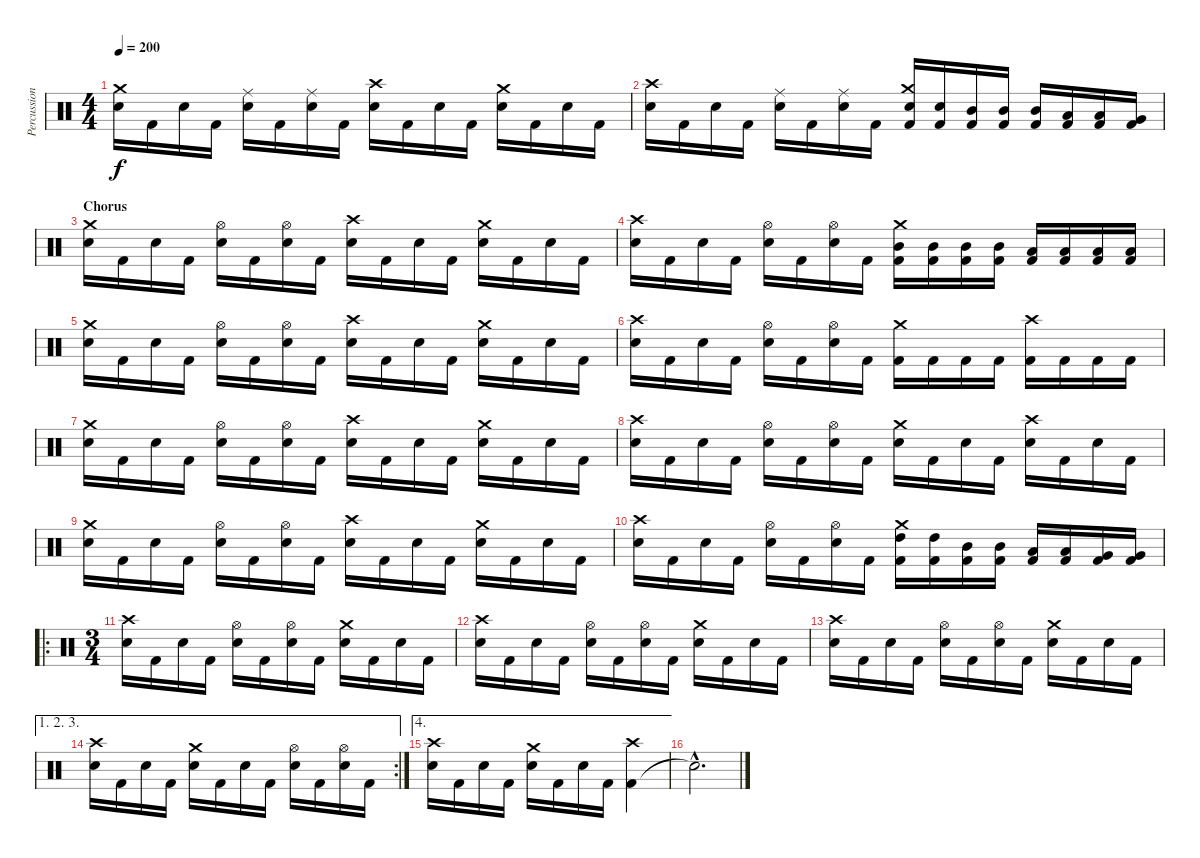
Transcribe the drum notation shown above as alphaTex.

\track ("Percussion" "Percussion") {instrument percussion}
\staff {score}
\articulation defaults
\ts (4 4)
\tempo 200
\clef neutral
\ks c
("Snare (hit) 2" "Crash medium (hit)").16{dy f} "Kick (hit) 2".16 "Snare (hit) 2".16 "Kick (hit) 2".16 ("Snare (hit) 2" "Ride (middle)").16 "Kick (hit) 2".16 ("Snare (hit) 2" "Ride (middle)").16 "Kick (hit) 2".16 ("Snare (hit) 2" "Crash high (hit)").16 "Kick (hit) 2".16 "Snare (hit) 2".16 "Kick (hit) 2".16 ("Snare (hit) 2" "Crash medium (hit)").16 "Kick (hit) 2".16 "Snare (hit) 2".16 "Kick (hit) 2".16 |
("Snare (hit) 2" "Crash high (hit)").16 "Kick (hit) 2".16 "Snare (hit) 2".16 "Kick (hit) 2".16 ("Snare (hit) 2" "Ride (middle)").16 "Kick (hit) 2".16 ("Snare (hit) 2" "Ride (middle)").16 "Kick (hit) 2".16 ("Kick (hit) 2" "Snare (hit) 2" "Crash medium (hit)").16 ("Kick (hit) 2" "Snare (hit) 2").16 ("Kick (hit) 2" "Mid Tom (hit)").16 ("Kick (hit) 2" "Mid Tom (hit)").16 ("Kick (hit) 2" "Mid Tom (hit)").16 ("Kick (hit) 2" "Low Tom (hit)").16 ("Kick (hit) 2" "Low Tom (hit)").16 ("Kick (hit) 2" "Very Low Tom (hit)").16 |
\section ("" "Chorus")
("Snare (hit) 2" "Crash medium (hit)").16 "Kick (hit) 2".16 "Snare (hit) 2".16 "Kick (hit) 2".16 ("Snare (hit) 2" "Hi-Hat (open)").16 "Kick (hit) 2".16 ("Snare (hit) 2" "Hi-Hat (open)").16 "Kick (hit) 2".16 ("Snare (hit) 2" "Crash high (hit)").16 "Kick (hit) 2".16 "Snare (hit) 2".16 "Kick (hit) 2".16 ("Snare (hit) 2" "Crash medium (hit)").16 "Kick (hit) 2".16 "Snare (hit) 2".16 "Kick (hit) 2".16 |
("Snare (hit) 2" "Crash high (hit)").16 "Kick (hit) 2".16 "Snare (hit) 2".16 "Kick (hit) 2".16 ("Snare (hit) 2" "Hi-Hat (open)").16 "Kick (hit) 2".16 ("Snare (hit) 2" "Hi-Hat (open)").16 "Kick (hit) 2".16 ("Kick (hit) 2" "Mid Tom (hit)" "Crash medium (hit)").16 ("Kick (hit) 2" "Mid Tom (hit)").16 ("Kick (hit) 2" "Mid Tom (hit)").16 ("Kick (hit) 2" "Mid Tom (hit)").16 ("Kick (hit) 2" "Low Tom (hit)").16 ("Kick (hit) 2" "Low Tom (hit)").16 ("Kick (hit) 2" "Low Tom (hit)").16 ("Kick (hit) 2" "Low Tom (hit)").16 |
("Snare (hit) 2" "Crash medium (hit)").16 "Kick (hit) 2".16 "Snare (hit) 2".16 "Kick (hit) 2".16 ("Snare (hit) 2" "Hi-Hat (open)").16 "Kick (hit) 2".16 ("Snare (hit) 2" "Hi-Hat (open)").16 "Kick (hit) 2".16 ("Snare (hit) 2" "Crash high (hit)").16 "Kick (hit) 2".16 "Snare (hit) 2".16 "Kick (hit) 2".16 ("Snare (hit) 2" "Crash medium (hit)").16 "Kick (hit) 2".16 "Snare (hit) 2".16 "Kick (hit) 2".16 |
("Snare (hit) 2" "Crash high (hit)").16 "Kick (hit) 2".16 "Snare (hit) 2".16 "Kick (hit) 2".16 ("Snare (hit) 2" "Hi-Hat (open)").16 "Kick (hit) 2".16 ("Snare (hit) 2" "Hi-Hat (open)").16 "Kick (hit) 2".16 ("Kick (hit) 2" "Crash medium (hit)").16 "Kick (hit) 2".16 "Kick (hit) 2".16 "Kick (hit) 2".16 ("Kick (hit) 2" "Crash high (hit)").16 "Kick (hit) 2".16 "Kick (hit) 2".16 "Kick (hit) 2".16 |
("Snare (hit) 2" "Crash medium (hit)").16 "Kick (hit) 2".16 "Snare (hit) 2".16 "Kick (hit) 2".16 ("Snare (hit) 2" "Hi-Hat (open)").16 "Kick (hit) 2".16 ("Snare (hit) 2" "Hi-Hat (open)").16 "Kick (hit) 2".16 ("Snare (hit) 2" "Crash high (hit)").16 "Kick (hit) 2".16 "Snare (hit) 2".16 "Kick (hit) 2".16 ("Snare (hit) 2" "Crash medium (hit)").16 "Kick (hit) 2".16 "Snare (hit) 2".16 "Kick (hit) 2".16 |
("Snare (hit) 2" "Crash high (hit)").16 "Kick (hit) 2".16 "Snare (hit) 2".16 "Kick (hit) 2".16 ("Snare (hit) 2" "Hi-Hat (open)").16 "Kick (hit) 2".16 ("Snare (hit) 2" "Hi-Hat (open)").16 "Kick (hit) 2".16 ("Snare (hit) 2" "Crash medium (hit)").16 "Kick (hit) 2".16 "Snare (hit) 2".16 "Kick (hit) 2".16 ("Snare (hit) 2" "Crash high (hit)").16 "Kick (hit) 2".16 "Snare (hit) 2".16 "Kick (hit) 2".16 |
("Snare (hit) 2" "Crash medium (hit)").16 "Kick (hit) 2".16 "Snare (hit) 2".16 "Kick (hit) 2".16 ("Snare (hit) 2" "Hi-Hat (open)").16 "Kick (hit) 2".16 ("Snare (hit) 2" "Hi-Hat (open)").16 "Kick (hit) 2".16 ("Snare (hit) 2" "Crash high (hit)").16 "Kick (hit) 2".16 "Snare (hit) 2".16 "Kick (hit) 2".16 ("Snare (hit) 2" "Crash medium (hit)").16 "Kick (hit) 2".16 "Snare (hit) 2".16 "Kick (hit) 2".16 |
("Snare (hit) 2" "Crash high (hit)").16 "Kick (hit) 2".16 "Snare (hit) 2".16 "Kick (hit) 2".16 ("Snare (hit) 2" "Hi-Hat (open)").16 "Kick (hit) 2".16 ("Snare (hit) 2" "Hi-Hat (open)").16 "Kick (hit) 2".16 ("Kick (hit) 2" "High Tom (hit)" "Crash medium (hit)").16 ("Kick (hit) 2" "High Tom (hit)").16 ("Kick (hit) 2" "Mid Tom (hit)").16 ("Kick (hit) 2" "Mid Tom (hit)").16 ("Kick (hit) 2" "Low Tom (hit)").16 ("Kick (hit) 2" "Low Tom (hit)").16 ("Kick (hit) 2" "Very Low Tom (hit)").16 ("Kick (hit) 2" "Very Low Tom (hit)").16 |
\ro
\ts (3 4)
("Snare (hit) 2" "Crash high (hit)").16 "Kick (hit) 2".16 "Snare (hit) 2".16 "Kick (hit) 2".16 ("Snare (hit) 2" "Hi-Hat (open)").16 "Kick (hit) 2".16 ("Snare (hit) 2" "Hi-Hat (open)").16 "Kick (hit) 2".16 ("Snare (hit) 2" "Crash medium (hit)").16 "Kick (hit) 2".16 "Snare (hit) 2".16 "Kick (hit) 2".16 |
("Snare (hit) 2" "Crash high (hit)").16 "Kick (hit) 2".16 "Snare (hit) 2".16 "Kick (hit) 2".16 ("Snare (hit) 2" "Hi-Hat (open)").16 "Kick (hit) 2".16 ("Snare (hit) 2" "Hi-Hat (open)").16 "Kick (hit) 2".16 ("Snare (hit) 2" "Crash medium (hit)").16 "Kick (hit) 2".16 "Snare (hit) 2".16 "Kick (hit) 2".16 |
("Snare (hit) 2" "Crash high (hit)").16 "Kick (hit) 2".16 "Snare (hit) 2".16 "Kick (hit) 2".16 ("Snare (hit) 2" "Hi-Hat (open)").16 "Kick (hit) 2".16 ("Snare (hit) 2" "Hi-Hat (open)").16 "Kick (hit) 2".16 ("Snare (hit) 2" "Crash medium (hit)").16 "Kick (hit) 2".16 "Snare (hit) 2".16 "Kick (hit) 2".16 |
\ae (1 2 3)
\rc 2
("Snare (hit) 2" "Crash high (hit)").16 "Kick (hit) 2".16 "Snare (hit) 2".16 "Kick (hit) 2".16 ("Snare (hit) 2" "Crash medium (hit)").16 "Kick (hit) 2".16 "Snare (hit) 2".16 "Kick (hit) 2".16 ("Snare (hit) 2" "Hi-Hat (open)").16 "Kick (hit) 2".16 ("Snare (hit) 2" "Hi-Hat (open)").16 "Kick (hit) 2".16 |
\ae 4
("Snare (hit) 2" "Crash high (hit)").16 "Kick (hit) 2".16 "Snare (hit) 2".16 "Kick (hit) 2".16 ("Snare (hit) 2" "Crash medium (hit)").16 "Kick (hit) 2".16 "Snare (hit) 2".16 "Kick (hit) 2".16 ("Kick (hit) 2" "Crash high (hit)").4 |
"Snare (hit)"{hac t}.2{d}
